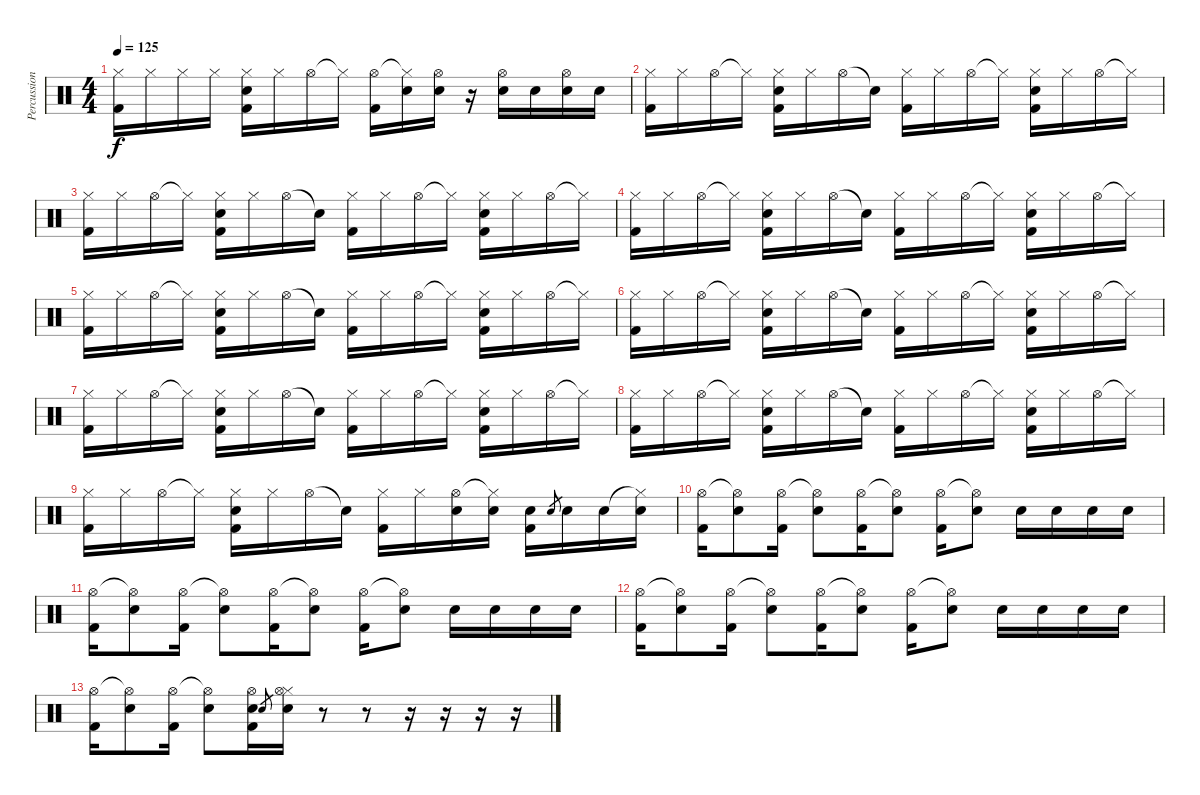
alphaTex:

\track ("Percussion" "Percussion") {instrument percussion}
\staff {score}
\articulation defaults
\ts (4 4)
\tempo 125
\clef neutral
\ks c
("Hi-Hat (closed)" "Kick (hit) 2").16{dy f} "Hi-Hat (closed)".16 "Hi-Hat (closed)".16 "Hi-Hat (closed)".16 ("Hi-Hat (closed)" "Electric Snare (hit)" "Kick (hit) 2").16 "Hi-Hat (closed)".16 "Hi-Hat (open)".16 "Hi-Hat (closed)"{t}.16 ("Hi-Hat (open)" "Kick (hit) 2").16 ("Hi-Hat (closed)"{t} "Electric Snare (hit)").16 ("Hi-Hat (open)" "Electric Snare (hit)").16 r.16 ("Hi-Hat (open)" "Electric Snare (hit)").16 "Electric Snare (hit)".16 ("Hi-Hat (open)" "Electric Snare (hit)").16 "Electric Snare (hit)".16 |
("Hi-Hat (closed)" "Kick (hit) 2").16 "Hi-Hat (closed)".16 "Hi-Hat (open)".16 "Hi-Hat (closed)"{t}.16 ("Hi-Hat (closed)" "Electric Snare (hit)" "Kick (hit) 2").16 "Hi-Hat (closed)".16 "Hi-Hat (open)".16 "Snare (hit)"{t}.16 ("Hi-Hat (closed)" "Kick (hit) 2").16 "Hi-Hat (closed)".16 "Hi-Hat (open)".16 "Hi-Hat (closed)"{t}.16 ("Hi-Hat (closed)" "Electric Snare (hit)" "Kick (hit) 2").16 "Hi-Hat (closed)".16 "Hi-Hat (open)".16 "Hi-Hat (closed)"{t}.16 |
("Hi-Hat (closed)" "Kick (hit) 2").16 "Hi-Hat (closed)".16 "Hi-Hat (open)".16 "Hi-Hat (closed)"{t}.16 ("Hi-Hat (closed)" "Electric Snare (hit)" "Kick (hit) 2").16 "Hi-Hat (closed)".16 "Hi-Hat (open)".16 "Snare (hit)"{t}.16 ("Hi-Hat (closed)" "Kick (hit) 2").16 "Hi-Hat (closed)".16 "Hi-Hat (open)".16 "Hi-Hat (closed)"{t}.16 ("Hi-Hat (closed)" "Electric Snare (hit)" "Kick (hit) 2").16 "Hi-Hat (closed)".16 "Hi-Hat (open)".16 "Hi-Hat (closed)"{t}.16 |
("Hi-Hat (closed)" "Kick (hit) 2").16 "Hi-Hat (closed)".16 "Hi-Hat (open)".16 "Hi-Hat (closed)"{t}.16 ("Hi-Hat (closed)" "Electric Snare (hit)" "Kick (hit) 2").16 "Hi-Hat (closed)".16 "Hi-Hat (open)".16 "Snare (hit)"{t}.16 ("Hi-Hat (closed)" "Kick (hit) 2").16 "Hi-Hat (closed)".16 "Hi-Hat (open)".16 "Hi-Hat (closed)"{t}.16 ("Hi-Hat (closed)" "Electric Snare (hit)" "Kick (hit) 2").16 "Hi-Hat (closed)".16 "Hi-Hat (open)".16 "Hi-Hat (closed)"{t}.16 |
("Hi-Hat (closed)" "Kick (hit) 2").16 "Hi-Hat (closed)".16 "Hi-Hat (open)".16 "Hi-Hat (closed)"{t}.16 ("Hi-Hat (closed)" "Electric Snare (hit)" "Kick (hit) 2").16 "Hi-Hat (closed)".16 "Hi-Hat (open)".16 "Snare (hit)"{t}.16 ("Hi-Hat (closed)" "Kick (hit) 2").16 "Hi-Hat (closed)".16 "Hi-Hat (open)".16 "Hi-Hat (closed)"{t}.16 ("Hi-Hat (closed)" "Electric Snare (hit)" "Kick (hit) 2").16 "Hi-Hat (closed)".16 "Hi-Hat (open)".16 "Hi-Hat (closed)"{t}.16 |
("Hi-Hat (closed)" "Kick (hit) 2").16 "Hi-Hat (closed)".16 "Hi-Hat (open)".16 "Hi-Hat (closed)"{t}.16 ("Hi-Hat (closed)" "Electric Snare (hit)" "Kick (hit) 2").16 "Hi-Hat (closed)".16 "Hi-Hat (open)".16 "Snare (hit)"{t}.16 ("Hi-Hat (closed)" "Kick (hit) 2").16 "Hi-Hat (closed)".16 "Hi-Hat (open)".16 "Hi-Hat (closed)"{t}.16 ("Hi-Hat (closed)" "Electric Snare (hit)" "Kick (hit) 2").16 "Hi-Hat (closed)".16 "Hi-Hat (open)".16 "Hi-Hat (closed)"{t}.16 |
("Hi-Hat (closed)" "Kick (hit) 2").16 "Hi-Hat (closed)".16 "Hi-Hat (open)".16 "Hi-Hat (closed)"{t}.16 ("Hi-Hat (closed)" "Electric Snare (hit)" "Kick (hit) 2").16 "Hi-Hat (closed)".16 "Hi-Hat (open)".16 "Snare (hit)"{t}.16 ("Hi-Hat (closed)" "Kick (hit) 2").16 "Hi-Hat (closed)".16 "Hi-Hat (open)".16 "Hi-Hat (closed)"{t}.16 ("Hi-Hat (closed)" "Electric Snare (hit)" "Kick (hit) 2").16 "Hi-Hat (closed)".16 "Hi-Hat (open)".16 "Hi-Hat (closed)"{t}.16 |
("Hi-Hat (closed)" "Kick (hit) 2").16 "Hi-Hat (closed)".16 "Hi-Hat (open)".16 "Hi-Hat (closed)"{t}.16 ("Hi-Hat (closed)" "Electric Snare (hit)" "Kick (hit) 2").16 "Hi-Hat (closed)".16 "Hi-Hat (open)".16 "Snare (hit)"{t}.16 ("Hi-Hat (closed)" "Kick (hit) 2").16 "Hi-Hat (closed)".16 "Hi-Hat (open)".16 "Hi-Hat (closed)"{t}.16 ("Hi-Hat (closed)" "Electric Snare (hit)" "Kick (hit) 2").16 "Hi-Hat (closed)".16 "Hi-Hat (open)".16 "Hi-Hat (closed)"{t}.16 |
("Hi-Hat (closed)" "Kick (hit) 2").16 "Hi-Hat (closed)".16 "Hi-Hat (open)".16 "Hi-Hat (closed)"{t}.16 ("Hi-Hat (closed)" "Electric Snare (hit)" "Kick (hit) 2").16 "Hi-Hat (closed)".16 "Hi-Hat (open)".16 "Snare (hit)"{t}.16 ("Hi-Hat (closed)" "Kick (hit) 2").16 "Hi-Hat (closed)".16 ("Hi-Hat (open)" "Electric Snare (hit)").16 ("Hi-Hat (closed)"{t} "Electric Snare (hit)").16 ("Electric Snare (hit)" "Kick (hit) 2").16 "Electric Snare (hit)".8{gr} "Electric Snare (hit)".16 "Electric Snare (hit)".16 ("Hi-Hat (closed)"{t} "Electric Snare (hit)").16 |
("Hi-Hat (open)" "Kick (hit) 2").16 ("Hi-Hat (open)"{t} "Electric Snare (hit)").8 ("Hi-Hat (open)" "Kick (hit) 2").16 ("Hi-Hat (open)"{t} "Electric Snare (hit)").8 ("Hi-Hat (open)" "Kick (hit) 2").16 ("Hi-Hat (open)"{t} "Electric Snare (hit)").8 ("Hi-Hat (open)" "Kick (hit) 2").16 ("Hi-Hat (open)"{t} "Electric Snare (hit)").8 "Electric Snare (hit)".16 "Electric Snare (hit)".16 "Electric Snare (hit)".16 "Electric Snare (hit)".16 |
("Hi-Hat (open)" "Kick (hit) 2").16 ("Hi-Hat (open)"{t} "Electric Snare (hit)").8 ("Hi-Hat (open)" "Kick (hit) 2").16 ("Hi-Hat (open)"{t} "Electric Snare (hit)").8 ("Hi-Hat (open)" "Kick (hit) 2").16 ("Hi-Hat (open)"{t} "Electric Snare (hit)").8 ("Hi-Hat (open)" "Kick (hit) 2").16 ("Hi-Hat (open)"{t} "Electric Snare (hit)").8 "Electric Snare (hit)".16 "Electric Snare (hit)".16 "Electric Snare (hit)".16 "Electric Snare (hit)".16 |
("Hi-Hat (open)" "Kick (hit) 2").16 ("Hi-Hat (open)"{t} "Electric Snare (hit)").8 ("Hi-Hat (open)" "Kick (hit) 2").16 ("Hi-Hat (open)"{t} "Electric Snare (hit)").8 ("Hi-Hat (open)" "Kick (hit) 2").16 ("Hi-Hat (open)"{t} "Electric Snare (hit)").8 ("Hi-Hat (open)" "Kick (hit) 2").16 ("Hi-Hat (open)"{t} "Electric Snare (hit)").8 "Electric Snare (hit)".16 "Electric Snare (hit)".16 "Electric Snare (hit)".16 "Electric Snare (hit)".16 |
("Hi-Hat (open)" "Kick (hit) 2").16 ("Hi-Hat (open)"{t} "Electric Snare (hit)").8 ("Hi-Hat (open)" "Kick (hit) 2").16 ("Hi-Hat (open)"{t} "Electric Snare (hit)").8 ("Hi-Hat (open)" "Electric Snare (hit)" "Kick (hit) 2").16 "Electric Snare (hit)".8{gr} ("Hi-Hat (closed)" "Electric Snare (hit)" "Hi-Hat (open)").16 r.8 r.8 r.16 r.16 r.16 r.16
